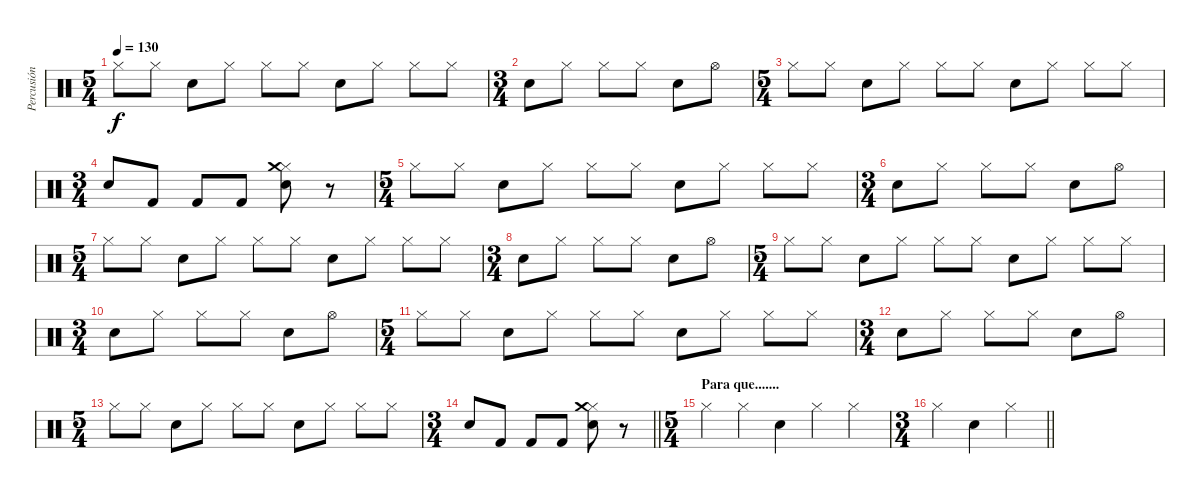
\track ("Percusión" "Percusión") {instrument percussion}
\staff {score}
\articulation defaults
\ts (5 4)
\tempo 130
\clef neutral
\ks c "Hi-Hat (closed)".8{dy f} "Hi-Hat (closed)".8 "Snare (hit) 2".8 "Hi-Hat (closed)".8 "Hi-Hat (closed)".8 "Hi-Hat (closed)".8 "Snare (hit) 2".8 "Hi-Hat (closed)".8 "Hi-Hat (closed)".8 "Hi-Hat (closed)".8
|
\ts (3 4)
"Snare (hit) 2".8 "Hi-Hat (closed)".8 "Hi-Hat (closed)".8 "Hi-Hat (closed)".8 "Snare (hit) 2".8 "Hi-Hat (open)".8 |
\ts (5 4)
"Hi-Hat (closed)".8 "Hi-Hat (closed)".8 "Snare (hit) 2".8 "Hi-Hat (closed)".8 "Hi-Hat (closed)".8 "Hi-Hat (closed)".8 "Snare (hit) 2".8 "Hi-Hat (closed)".8 "Hi-Hat (closed)".8 "Hi-Hat (closed)".8 |
\ts (3 4)
"Snare (hit) 2".8 "Kick (hit) 2".8 "Kick (hit) 2".8 "Kick (hit) 2".8 ("Hi-Hat (closed)" "Snare (hit) 2" "Crash medium (hit)").8 r.8 |
\ts (5 4)
"Hi-Hat (closed)".8 "Hi-Hat (closed)".8 "Snare (hit) 2".8 "Hi-Hat (closed)".8 "Hi-Hat (closed)".8 "Hi-Hat (closed)".8 "Snare (hit) 2".8 "Hi-Hat (closed)".8 "Hi-Hat (closed)".8 "Hi-Hat (closed)".8 |
\ts (3 4)
"Snare (hit) 2".8 "Hi-Hat (closed)".8 "Hi-Hat (closed)".8 "Hi-Hat (closed)".8 "Snare (hit) 2".8 "Hi-Hat (open)".8 |
\ts (5 4)
"Hi-Hat (closed)".8 "Hi-Hat (closed)".8 "Snare (hit) 2".8 "Hi-Hat (closed)".8 "Hi-Hat (closed)".8 "Hi-Hat (closed)".8 "Snare (hit) 2".8 "Hi-Hat (closed)".8 "Hi-Hat (closed)".8 "Hi-Hat (closed)".8 |
\ts (3 4)
"Snare (hit) 2".8 "Hi-Hat (closed)".8 "Hi-Hat (closed)".8 "Hi-Hat (closed)".8 "Snare (hit) 2".8 "Hi-Hat (open)".8 |
\ts (5 4)
"Hi-Hat (closed)".8 "Hi-Hat (closed)".8 "Snare (hit) 2".8 "Hi-Hat (closed)".8 "Hi-Hat (closed)".8 "Hi-Hat (closed)".8 "Snare (hit) 2".8 "Hi-Hat (closed)".8 "Hi-Hat (closed)".8 "Hi-Hat (closed)".8 |
\ts (3 4)
"Snare (hit) 2".8 "Hi-Hat (closed)".8 "Hi-Hat (closed)".8 "Hi-Hat (closed)".8 "Snare (hit) 2".8 "Hi-Hat (open)".8 |
\ts (5 4)
"Hi-Hat (closed)".8 "Hi-Hat (closed)".8 "Snare (hit) 2".8 "Hi-Hat (closed)".8 "Hi-Hat (closed)".8 "Hi-Hat (closed)".8 "Snare (hit) 2".8 "Hi-Hat (closed)".8 "Hi-Hat (closed)".8 "Hi-Hat (closed)".8 |
\ts (3 4)
"Snare (hit) 2".8 "Hi-Hat (closed)".8 "Hi-Hat (closed)".8 "Hi-Hat (closed)".8 "Snare (hit) 2".8 "Hi-Hat (open)".8 |
\ts (5 4)
"Hi-Hat (closed)".8 "Hi-Hat (closed)".8 "Snare (hit) 2".8 "Hi-Hat (closed)".8 "Hi-Hat (closed)".8 "Hi-Hat (closed)".8 "Snare (hit) 2".8 "Hi-Hat (closed)".8 "Hi-Hat (closed)".8 "Hi-Hat (closed)".8 |
\ts (3 4)
\barLineRight lightlight "Snare (hit) 2".8 "Kick (hit) 2".8 "Kick (hit) 2".8 "Kick (hit) 2".8
("Hi-Hat (closed)" "Snare (hit) 2" "Crash medium (hit)").8 r.8 |
\ts (5 4)
\section ("" "Para que.......")
"Hi-Hat (closed)".4 "Hi-Hat (closed)".4 "Snare (hit) 2".4 "Hi-Hat (closed)".4 "Hi-Hat (closed)".4 |
\ts (3 4)
\barLineRight lightlight "Hi-Hat (closed)".4 "Snare (hit) 2".4 "Hi-Hat (closed)".4
